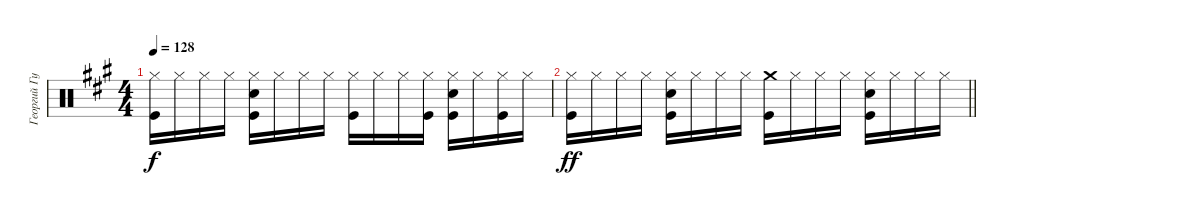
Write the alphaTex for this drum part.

\track ("Георгий Гурьянов" "Георгий Гу") {instrument percussion}
\staff {score}
\articulation defaults
\ts (4 4)
\tempo 128
\clef neutral
\ks f#minor
("Hi-Hat (closed)" "Kick (hit)").16{dy f} "Hi-Hat (closed)".16 "Hi-Hat (closed)".16 "Hi-Hat (closed)".16 ("Hi-Hat (closed)" "Snare (hit) 2" "Kick (hit)").16 "Hi-Hat (closed)".16 "Hi-Hat (closed)".16 "Hi-Hat (closed)".16 ("Hi-Hat (closed)" "Kick (hit)").16 "Hi-Hat (closed)".16 "Hi-Hat (closed)".16 ("Hi-Hat (closed)" "Kick (hit)").16 ("Hi-Hat (closed)" "Snare (hit) 2" "Kick (hit)").16 "Hi-Hat (closed)".16 ("Hi-Hat (closed)" "Kick (hit)").16 "Hi-Hat (closed)".16 |
\barLineRight lightlight
("Hi-Hat (closed)" "Kick (hit)").16{dy ff} "Hi-Hat (closed)".16 "Hi-Hat (closed)".16 "Hi-Hat (closed)".16 ("Hi-Hat (closed)" "Snare (hit) 2" "Kick (hit)").16 "Hi-Hat (closed)".16 "Hi-Hat (closed)".16 "Hi-Hat (closed)".16 ("Crash medium (hit)" "Kick (hit)").16 "Hi-Hat (closed)".16 "Hi-Hat (closed)".16 "Hi-Hat (closed)".16 ("Hi-Hat (closed)" "Snare (hit) 2" "Kick (hit)").16 "Hi-Hat (closed)".16 "Hi-Hat (closed)".16 "Hi-Hat (closed)".16
